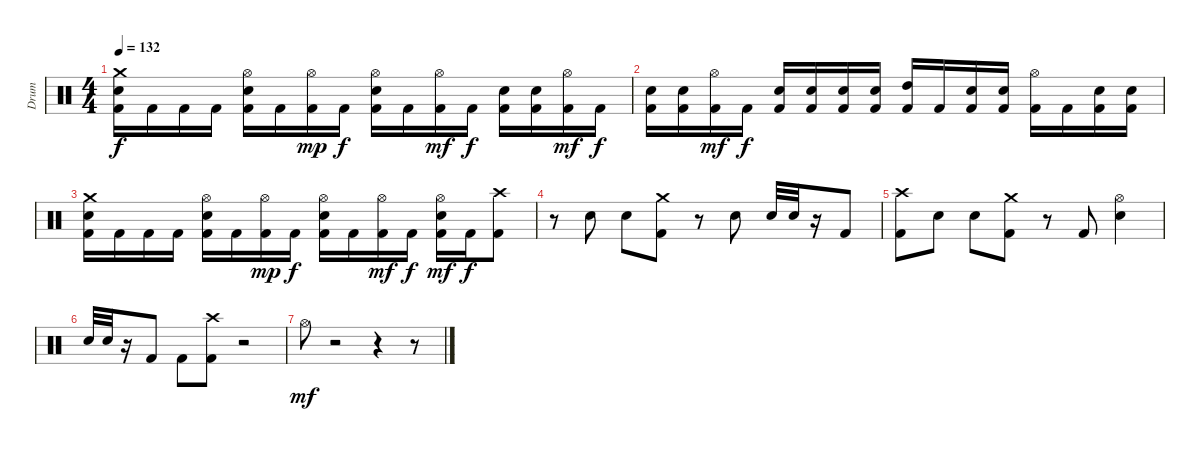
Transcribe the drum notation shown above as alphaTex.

\track ("Drum" "Drum") {instrument percussion}
\staff {score}
\articulation defaults
\ts (4 4)
\tempo 132
\clef neutral
\ks c
("Crash medium (hit)" "Electric Snare (hit)" "Kick (hit) 2").16{dy f} "Kick (hit) 2".16 "Kick (hit) 2".16 "Kick (hit) 2".16 ("Kick (hit) 2" "Electric Snare (hit)" "Hi-Hat (open)").16 "Kick (hit) 2".16 ("Kick (hit) 2" "Hi-Hat (open)").16{dy mp} "Kick (hit) 2".16{dy f} ("Kick (hit) 2" "Electric Snare (hit)" "Hi-Hat (open)").16 "Kick (hit) 2".16 ("Kick (hit) 2" "Hi-Hat (open)").16{dy mf} "Kick (hit) 2".16{dy f} ("Kick (hit) 2" "Electric Snare (hit)").16 ("Kick (hit) 2" "Electric Snare (hit)").16 ("Kick (hit) 2" "Hi-Hat (open)").16{dy mf} "Kick (hit) 2".16{dy f} |
("Electric Snare (hit)" "Kick (hit) 2").16 ("Kick (hit) 2" "Electric Snare (hit)").16 ("Kick (hit) 2" "Hi-Hat (open)").16{dy mf} "Kick (hit) 2".16{dy f} ("Kick (hit) 2" "Electric Snare (hit)").16 ("Kick (hit) 2" "Electric Snare (hit)").16 ("Kick (hit) 2" "Electric Snare (hit)").16 ("Kick (hit) 2" "Electric Snare (hit)").16 ("Kick (hit) 2" "High Tom (hit)").16 "Kick (hit) 2".16 ("Kick (hit) 2" "Electric Snare (hit)").16 ("Kick (hit) 2" "Electric Snare (hit)").16 ("Kick (hit) 2" "Hi-Hat (open)").16 "Kick (hit) 2".16 ("Kick (hit) 2" "Electric Snare (hit)").16 ("Kick (hit) 2" "Electric Snare (hit)").16 |
("Kick (hit) 2" "Electric Snare (hit)" "Crash medium (hit)").16 "Kick (hit) 2".16 "Kick (hit) 2".16 "Kick (hit) 2".16 ("Kick (hit) 2" "Electric Snare (hit)" "Hi-Hat (open)").16 "Kick (hit) 2".16 ("Kick (hit) 2" "Hi-Hat (open)").16{dy mp} "Kick (hit) 2".16{dy f} ("Kick (hit) 2" "Electric Snare (hit)" "Hi-Hat (open)").16 "Kick (hit) 2".16 ("Kick (hit) 2" "Hi-Hat (open)").16{dy mf} "Kick (hit) 2".16{dy f} ("Kick (hit) 2" "Electric Snare (hit)" "Hi-Hat (open)").16{dy mf} "Kick (hit) 2".16{dy f} ("Kick (hit) 2" "Crash high (hit)").8 |
r.8 "Electric Snare (hit)".8 "Electric Snare (hit)".8 ("Kick (hit) 2" "Crash medium (hit)").8 r.8 "Electric Snare (hit)".8 "Electric Snare (hit)".32 "Electric Snare (hit)".32 r.16 "Kick (hit) 2".8 |
("Crash high (hit)" "Kick (hit) 2").8 "Electric Snare (hit)".8 "Electric Snare (hit)".8 ("Kick (hit) 2" "Crash medium (hit)").8 r.8 "Kick (hit) 2".8 ("Electric Snare (hit)" "Hi-Hat (open)").4 |
"Electric Snare (hit)".32 "Electric Snare (hit)".32 r.16 "Kick (hit) 2".8 "Kick (hit) 2".8 ("Kick (hit) 2" "Crash high (hit)").8 r.2 |
"Hi-Hat (open)".8{dy mf} r.2 r.4 r.8
